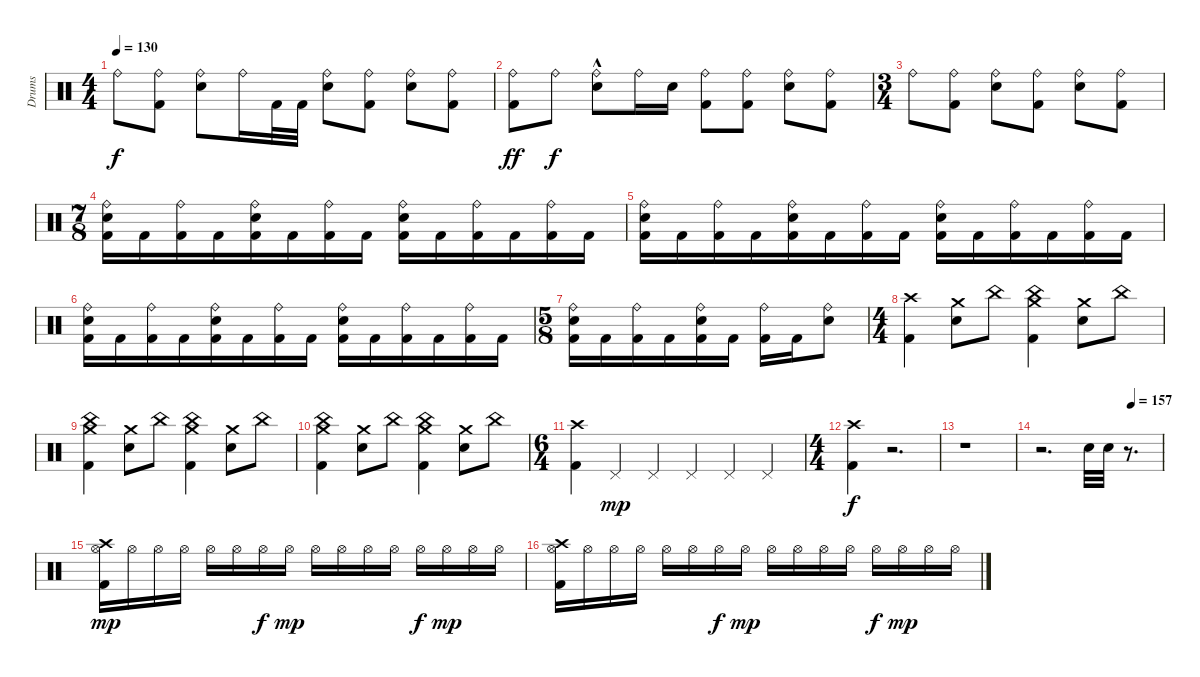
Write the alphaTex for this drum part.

\track ("Drums" "Drums") {instrument percussion}
\staff {score}
\articulation defaults
\ts (4 4)
\tempo 130
\clef neutral
\ks c "Ride (bell)".8{dy f}
("Kick (hit) 2" "Ride (bell)").8 ("Electric Snare (hit)" "Ride (bell)").8 "Ride (bell)".16 "Kick (hit) 2".32 "Kick (hit) 2".32 ("Electric Snare (hit)" "Ride (bell)").8 ("Kick (hit) 2" "Ride (bell)").8 ("Electric Snare (hit)" "Ride (bell)").8 ("Kick (hit) 2" "Ride (bell)").8 |
("Kick (hit) 2" "Ride (bell)").8{dy ff} "Ride (bell)".8{dy f} ("Electric Snare (hit)"{hac} "Ride (bell)").8 "Ride (bell)".16 "Electric Snare (hit)".16 ("Kick (hit) 2" "Ride (bell)").8 ("Kick (hit) 2" "Ride (bell)").8 ("Electric Snare (hit)" "Ride (bell)").8 ("Kick (hit) 2" "Ride (bell)").8 |
\ts (3 4)
"Ride (bell)".8 ("Kick (hit) 2" "Ride (bell)").8 ("Electric Snare (hit)" "Ride (bell)").8 ("Ride (bell)" "Kick (hit) 2").8 ("Electric Snare (hit)" "Ride (bell)").8 ("Kick (hit) 2" "Ride (bell)").8 |
\ts (7 8)
("Kick (hit) 2" "Electric Snare (hit)" "Ride (bell)").16 "Kick (hit) 2".16 ("Kick (hit) 2" "Ride (bell)").16 "Kick (hit) 2".16 ("Kick (hit) 2" "Electric Snare (hit)" "Ride (bell)").16 "Kick (hit) 2".16 ("Kick (hit) 2" "Ride (bell)").16 "Kick (hit) 2".16 ("Kick (hit) 2" "Electric Snare (hit)" "Ride (bell)").16 "Kick (hit) 2".16 ("Kick (hit) 2" "Ride (bell)").16 "Kick (hit) 2".16 ("Kick (hit) 2" "Ride (bell)").16 "Kick (hit) 2".16 |
("Kick (hit) 2" "Ride (bell)" "Electric Snare (hit)").16 "Kick (hit) 2".16 ("Kick (hit) 2" "Ride (bell)").16 "Kick (hit) 2".16 ("Kick (hit) 2" "Ride (bell)" "Electric Snare (hit)").16 "Kick (hit) 2".16 ("Kick (hit) 2" "Ride (bell)").16 "Kick (hit) 2".16 ("Kick (hit) 2" "Ride (bell)" "Electric Snare (hit)").16 "Kick (hit) 2".16 ("Kick (hit) 2" "Ride (bell)").16 "Kick (hit) 2".16 ("Kick (hit) 2" "Ride (bell)").16 "Kick (hit) 2".16 |
("Kick (hit) 2" "Ride (bell)" "Electric Snare (hit)").16 "Kick (hit) 2".16 ("Kick (hit) 2" "Ride (bell)").16 "Kick (hit) 2".16 ("Kick (hit) 2" "Electric Snare (hit)" "Ride (bell)").16 "Kick (hit) 2".16 ("Kick (hit) 2" "Ride (bell)").16 "Kick (hit) 2".16 ("Kick (hit) 2" "Electric Snare (hit)" "Ride (bell)").16 "Kick (hit) 2".16 ("Kick (hit) 2" "Ride (bell)").16 "Kick (hit) 2".16 ("Kick (hit) 2" "Ride (bell)").16 "Kick (hit) 2".16 |
\ts (5 8)
("Kick (hit) 2" "Electric Snare (hit)" "Ride (bell)").16 "Kick (hit) 2".16 ("Kick (hit) 2" "Ride (bell)").16 "Kick (hit) 2".16 ("Kick (hit) 2" "Ride (bell)" "Electric Snare (hit)").16 "Kick (hit) 2".16 ("Kick (hit) 2" "Ride (bell)").16 "Kick (hit) 2".16 ("Electric Snare (hit)" "Ride (bell)").8 |
\ts (4 4)
("Crash high (hit)" "Kick (hit) 2").4 ("Electric Snare (hit)" "Crash medium (hit)").8 "China (hit)".8 ("Kick (hit) 2" "Crash medium (hit)" "China (hit)").4 ("Electric Snare (hit)" "Crash medium (hit)").8 "China (hit)".8 |
("Kick (hit) 2" "Crash medium (hit)" "China (hit)").4 ("Electric Snare (hit)" "Crash medium (hit)").8 "China (hit)".8 ("Kick (hit) 2" "Crash medium (hit)" "China (hit)").4 ("Electric Snare (hit)" "Crash medium (hit)").8 "China (hit)".8 |
("Kick (hit) 2" "Crash medium (hit)" "China (hit)").4 ("Electric Snare (hit)" "Crash medium (hit)").8 "China (hit)".8 ("Kick (hit) 2" "Crash medium (hit)" "China (hit)").4 ("Electric Snare (hit)" "Crash medium (hit)").8 "China (hit)".8 |
\ts (6 4)
("Kick (hit) 2" "Crash high (hit)").4 "Pedal Hi-Hat (hit)".4{dy mp} "Pedal Hi-Hat (hit)".4 "Pedal Hi-Hat (hit)".4 "Pedal Hi-Hat (hit)".4 "Pedal Hi-Hat (hit)".4 |
\ts (4 4)
("Kick (hit) 2" "Crash high (hit)").4{dy f} r.2{d} |
r.1 |
\tempo (157 0.75)
r.2{d} "Electric Snare (hit)".32 "Electric Snare (hit)".32 r.8{d} |
("Crash high (hit)" "Kick (hit) 2" "Hi-Hat (open)").16{dy mp} "Hi-Hat (open)".16 "Hi-Hat (open)".16 "Hi-Hat (open)".16 "Hi-Hat (open)".16 "Hi-Hat (open)".16 "Hi-Hat (open)".16{dy f} "Hi-Hat (open)".16{dy mp} "Hi-Hat (open)".16 "Hi-Hat (open)".16 "Hi-Hat (open)".16 "Hi-Hat (open)".16 "Hi-Hat (open)".16{dy f} "Hi-Hat (open)".16{dy mp} "Hi-Hat (open)".16 "Hi-Hat (open)".16 |
("Crash high (hit)" "Kick (hit) 2" "Hi-Hat (open)").16 "Hi-Hat (open)".16 "Hi-Hat (open)".16 "Hi-Hat (open)".16 "Hi-Hat (open)".16 "Hi-Hat (open)".16 "Hi-Hat (open)".16{dy f} "Hi-Hat (open)".16{dy mp} "Hi-Hat (open)".16 "Hi-Hat (open)".16 "Hi-Hat (open)".16 "Hi-Hat (open)".16 "Hi-Hat (open)".16{dy f} "Hi-Hat (open)".16{dy mp} "Hi-Hat (open)".16 "Hi-Hat (open)".16
